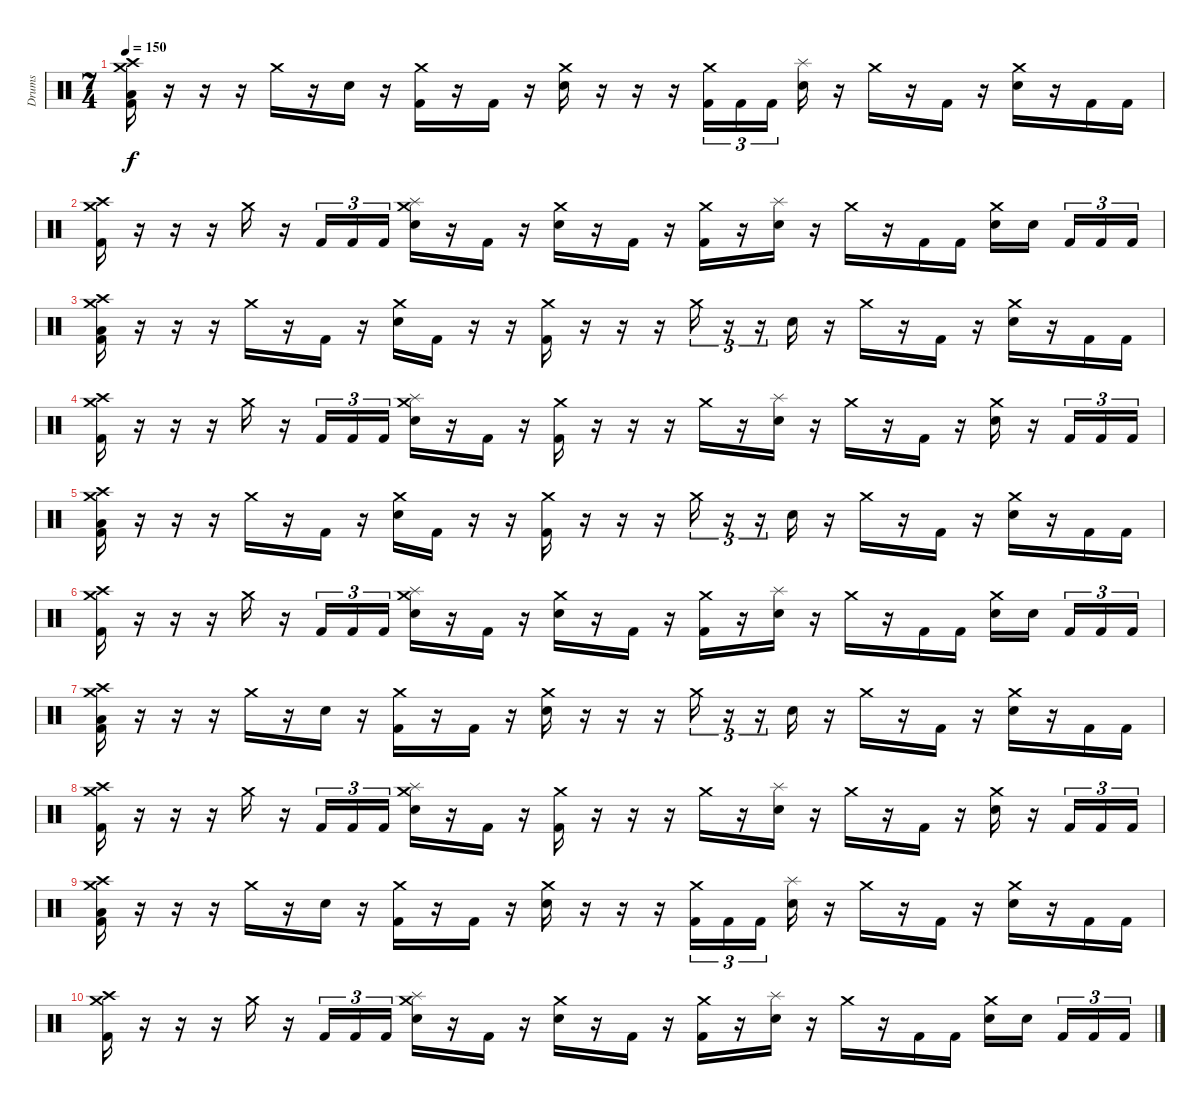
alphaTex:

\track ("Drums" "Drums") {instrument percussion}
\staff {score}
\articulation defaults
\ts (7 4)
\tempo 150
\clef neutral
\ks c
("Crash high (hit)" "Crash medium (hit)" "Low Floor Tom (hit)" "Kick (hit) 2").16{dy f} r.16 r.16 r.16 "Crash medium (hit)".16 r.16 "Electric Snare (hit)".16 r.16 ("Crash medium (hit)" "Kick (hit) 2").16 r.16 "Kick (hit) 2".16 r.16 ("Crash medium (hit)" "Electric Snare (hit)").16 r.16 r.16 r.16 ("Crash medium (hit)" "Kick (hit) 2").16{tu (3 2)} "Kick (hit) 2".16{tu (3 2)} "Kick (hit) 2".16{tu (3 2)} ("Splash (hit)" "Electric Snare (hit)").16 r.16 "Crash medium (hit)".16 r.16 "Kick (hit) 2".16 r.16 ("Crash medium (hit)" "Electric Snare (hit)").16 r.16 "Kick (hit) 2".16 "Kick (hit) 2".16 |
("Crash high (hit)" "Crash medium (hit)" "Kick (hit) 2").16 r.16 r.16 r.16 "Crash medium (hit)".16 r.16 "Kick (hit) 2".16{tu (3 2)} "Kick (hit) 2".16{tu (3 2)} "Kick (hit) 2".16{tu (3 2)} ("Crash medium (hit)" "Splash (hit)" "Electric Snare (hit)").16 r.16 "Kick (hit) 2".16 r.16 ("Crash medium (hit)" "Electric Snare (hit)").16 r.16 "Kick (hit) 2".16 r.16 ("Crash medium (hit)" "Kick (hit) 2").16 r.16 ("Splash (hit)" "Electric Snare (hit)").16 r.16 "Crash medium (hit)".16 r.16 "Kick (hit) 2".16 "Kick (hit) 2".16 ("Crash medium (hit)" "Electric Snare (hit)").16 "Electric Snare (hit)".16 "Kick (hit) 2".16{tu (3 2)} "Kick (hit) 2".16{tu (3 2)} "Kick (hit) 2".16{tu (3 2)} |
("Crash high (hit)" "Crash medium (hit)" "Low Floor Tom (hit)" "Kick (hit) 2").16 r.16 r.16 r.16 "Crash medium (hit)".16 r.16 "Kick (hit) 2".16 r.16 ("Crash medium (hit)" "Electric Snare (hit)").16 "Kick (hit) 2".16 r.16 r.16 ("Crash medium (hit)" "Kick (hit) 2").16 r.16 r.16 r.16 "Crash medium (hit)".16{tu (3 2)} r.16{tu (3 2)} r.16{tu (3 2)} "Electric Snare (hit)".16 r.16 "Crash medium (hit)".16 r.16 "Kick (hit) 2".16 r.16 ("Crash medium (hit)" "Electric Snare (hit)").16 r.16 "Kick (hit) 2".16 "Kick (hit) 2".16 |
("Crash high (hit)" "Crash medium (hit)" "Kick (hit) 2").16 r.16 r.16 r.16 "Crash medium (hit)".16 r.16 "Kick (hit) 2".16{tu (3 2)} "Kick (hit) 2".16{tu (3 2)} "Kick (hit) 2".16{tu (3 2)} ("Crash medium (hit)" "Splash (hit)" "Electric Snare (hit)").16 r.16 "Kick (hit) 2".16 r.16 ("Crash medium (hit)" "Kick (hit) 2").16 r.16 r.16 r.16 "Crash medium (hit)".16 r.16 ("Splash (hit)" "Electric Snare (hit)").16 r.16 "Crash medium (hit)".16 r.16 "Kick (hit) 2".16 r.16 ("Crash medium (hit)" "Electric Snare (hit)").16 r.16 "Kick (hit) 2".16{tu (3 2)} "Kick (hit) 2".16{tu (3 2)} "Kick (hit) 2".16{tu (3 2)} |
("Crash high (hit)" "Crash medium (hit)" "Low Floor Tom (hit)" "Kick (hit) 2").16 r.16 r.16 r.16 "Crash medium (hit)".16 r.16 "Kick (hit) 2".16 r.16 ("Crash medium (hit)" "Electric Snare (hit)").16 "Kick (hit) 2".16 r.16 r.16 ("Crash medium (hit)" "Kick (hit) 2").16 r.16 r.16 r.16 "Crash medium (hit)".16{tu (3 2)} r.16{tu (3 2)} r.16{tu (3 2)} "Electric Snare (hit)".16 r.16 "Crash medium (hit)".16 r.16 "Kick (hit) 2".16 r.16 ("Crash medium (hit)" "Electric Snare (hit)").16 r.16 "Kick (hit) 2".16 "Kick (hit) 2".16 |
("Crash high (hit)" "Crash medium (hit)" "Kick (hit) 2").16 r.16 r.16 r.16 "Crash medium (hit)".16 r.16 "Kick (hit) 2".16{tu (3 2)} "Kick (hit) 2".16{tu (3 2)} "Kick (hit) 2".16{tu (3 2)} ("Crash medium (hit)" "Splash (hit)" "Electric Snare (hit)").16 r.16 "Kick (hit) 2".16 r.16 ("Crash medium (hit)" "Electric Snare (hit)").16 r.16 "Kick (hit) 2".16 r.16 ("Crash medium (hit)" "Kick (hit) 2").16 r.16 ("Splash (hit)" "Electric Snare (hit)").16 r.16 "Crash medium (hit)".16 r.16 "Kick (hit) 2".16 "Kick (hit) 2".16 ("Crash medium (hit)" "Electric Snare (hit)").16 "Electric Snare (hit)".16 "Kick (hit) 2".16{tu (3 2)} "Kick (hit) 2".16{tu (3 2)} "Kick (hit) 2".16{tu (3 2)} |
("Crash high (hit)" "Crash medium (hit)" "Low Floor Tom (hit)" "Kick (hit) 2").16 r.16 r.16 r.16 "Crash medium (hit)".16 r.16 "Electric Snare (hit)".16 r.16 ("Crash medium (hit)" "Kick (hit) 2").16 r.16 "Kick (hit) 2".16 r.16 ("Crash medium (hit)" "Electric Snare (hit)").16 r.16 r.16 r.16 "Crash medium (hit)".16{tu (3 2)} r.16{tu (3 2)} r.16{tu (3 2)} "Electric Snare (hit)".16 r.16 "Crash medium (hit)".16 r.16 "Kick (hit) 2".16 r.16 ("Crash medium (hit)" "Electric Snare (hit)").16 r.16 "Kick (hit) 2".16 "Kick (hit) 2".16 |
("Crash high (hit)" "Crash medium (hit)" "Kick (hit) 2").16 r.16 r.16 r.16 "Crash medium (hit)".16 r.16 "Kick (hit) 2".16{tu (3 2)} "Kick (hit) 2".16{tu (3 2)} "Kick (hit) 2".16{tu (3 2)} ("Crash medium (hit)" "Splash (hit)" "Electric Snare (hit)").16 r.16 "Kick (hit) 2".16 r.16 ("Crash medium (hit)" "Kick (hit) 2").16 r.16 r.16 r.16 "Crash medium (hit)".16 r.16 ("Splash (hit)" "Electric Snare (hit)").16 r.16 "Crash medium (hit)".16 r.16 "Kick (hit) 2".16 r.16 ("Crash medium (hit)" "Electric Snare (hit)").16 r.16 "Kick (hit) 2".16{tu (3 2)} "Kick (hit) 2".16{tu (3 2)} "Kick (hit) 2".16{tu (3 2)} |
("Crash high (hit)" "Crash medium (hit)" "Low Floor Tom (hit)" "Kick (hit) 2").16 r.16 r.16 r.16 "Crash medium (hit)".16 r.16 "Electric Snare (hit)".16 r.16 ("Crash medium (hit)" "Kick (hit) 2").16 r.16 "Kick (hit) 2".16 r.16 ("Crash medium (hit)" "Electric Snare (hit)").16 r.16 r.16 r.16 ("Crash medium (hit)" "Kick (hit) 2").16{tu (3 2)} "Kick (hit) 2".16{tu (3 2)} "Kick (hit) 2".16{tu (3 2)} ("Splash (hit)" "Electric Snare (hit)").16 r.16 "Crash medium (hit)".16 r.16 "Kick (hit) 2".16 r.16 ("Crash medium (hit)" "Electric Snare (hit)").16 r.16 "Kick (hit) 2".16 "Kick (hit) 2".16 |
("Crash high (hit)" "Crash medium (hit)" "Kick (hit) 2").16 r.16 r.16 r.16 "Crash medium (hit)".16 r.16 "Kick (hit) 2".16{tu (3 2)} "Kick (hit) 2".16{tu (3 2)} "Kick (hit) 2".16{tu (3 2)} ("Crash medium (hit)" "Splash (hit)" "Electric Snare (hit)").16 r.16 "Kick (hit) 2".16 r.16 ("Crash medium (hit)" "Electric Snare (hit)").16 r.16 "Kick (hit) 2".16 r.16 ("Crash medium (hit)" "Kick (hit) 2").16 r.16 ("Splash (hit)" "Electric Snare (hit)").16 r.16 "Crash medium (hit)".16 r.16 "Kick (hit) 2".16 "Kick (hit) 2".16 ("Crash medium (hit)" "Electric Snare (hit)").16 "Electric Snare (hit)".16 "Kick (hit) 2".16{tu (3 2)} "Kick (hit) 2".16{tu (3 2)} "Kick (hit) 2".16{tu (3 2)}
